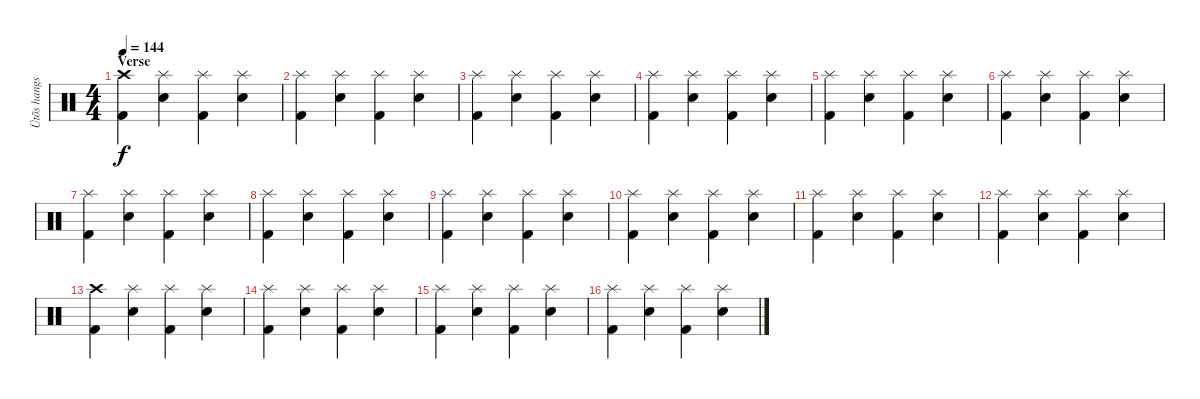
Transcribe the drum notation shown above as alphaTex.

\track ("Ütõs hangszer" "Ütõs hangs") {instrument percussion}
\staff {score}
\articulation defaults
\ts (4 4)
\section ("" "Verse")
\tempo 144
\clef neutral
\ks c
("Crash high (hit)" "Kick (hit) 2").4{dy f} ("Splash (hit)" "Electric Snare (hit)").4 ("Splash (hit)" "Kick (hit) 2").4 ("Splash (hit)" "Electric Snare (hit)").4 |
("Splash (hit)" "Kick (hit) 2").4 ("Splash (hit)" "Electric Snare (hit)").4 ("Splash (hit)" "Kick (hit) 2").4 ("Splash (hit)" "Electric Snare (hit)").4 |
("Splash (hit)" "Kick (hit) 2").4 ("Splash (hit)" "Electric Snare (hit)").4 ("Splash (hit)" "Kick (hit) 2").4 ("Splash (hit)" "Electric Snare (hit)").4 |
("Splash (hit)" "Kick (hit) 2").4 ("Splash (hit)" "Electric Snare (hit)").4 ("Splash (hit)" "Kick (hit) 2").4 ("Splash (hit)" "Electric Snare (hit)").4 |
("Splash (hit)" "Kick (hit) 2").4 ("Splash (hit)" "Electric Snare (hit)").4 ("Splash (hit)" "Kick (hit) 2").4 ("Splash (hit)" "Electric Snare (hit)").4 |
("Splash (hit)" "Kick (hit) 2").4 ("Splash (hit)" "Electric Snare (hit)").4 ("Splash (hit)" "Kick (hit) 2").4 ("Splash (hit)" "Electric Snare (hit)").4 |
("Splash (hit)" "Kick (hit) 2").4 ("Splash (hit)" "Electric Snare (hit)").4 ("Splash (hit)" "Kick (hit) 2").4 ("Splash (hit)" "Electric Snare (hit)").4 |
("Splash (hit)" "Kick (hit) 2").4 ("Splash (hit)" "Electric Snare (hit)").4 ("Splash (hit)" "Kick (hit) 2").4 ("Splash (hit)" "Electric Snare (hit)").4 |
("Splash (hit)" "Kick (hit) 2").4 ("Splash (hit)" "Electric Snare (hit)").4 ("Splash (hit)" "Kick (hit) 2").4 ("Splash (hit)" "Electric Snare (hit)").4 |
("Splash (hit)" "Kick (hit) 2").4 ("Splash (hit)" "Electric Snare (hit)").4 ("Splash (hit)" "Kick (hit) 2").4 ("Splash (hit)" "Electric Snare (hit)").4 |
("Splash (hit)" "Kick (hit) 2").4 ("Splash (hit)" "Electric Snare (hit)").4 ("Splash (hit)" "Kick (hit) 2").4 ("Splash (hit)" "Electric Snare (hit)").4 |
("Splash (hit)" "Kick (hit) 2").4 ("Splash (hit)" "Electric Snare (hit)").4 ("Splash (hit)" "Kick (hit) 2").4 ("Splash (hit)" "Electric Snare (hit)").4 |
("Crash high (hit)" "Kick (hit) 2").4 ("Splash (hit)" "Electric Snare (hit)").4 ("Splash (hit)" "Kick (hit) 2").4 ("Splash (hit)" "Electric Snare (hit)").4 |
("Splash (hit)" "Kick (hit) 2").4 ("Splash (hit)" "Electric Snare (hit)").4 ("Splash (hit)" "Kick (hit) 2").4 ("Splash (hit)" "Electric Snare (hit)").4 |
("Splash (hit)" "Kick (hit) 2").4 ("Splash (hit)" "Electric Snare (hit)").4 ("Splash (hit)" "Kick (hit) 2").4 ("Splash (hit)" "Electric Snare (hit)").4 |
("Splash (hit)" "Kick (hit) 2").4 ("Splash (hit)" "Electric Snare (hit)").4 ("Splash (hit)" "Kick (hit) 2").4 ("Splash (hit)" "Electric Snare (hit)").4
